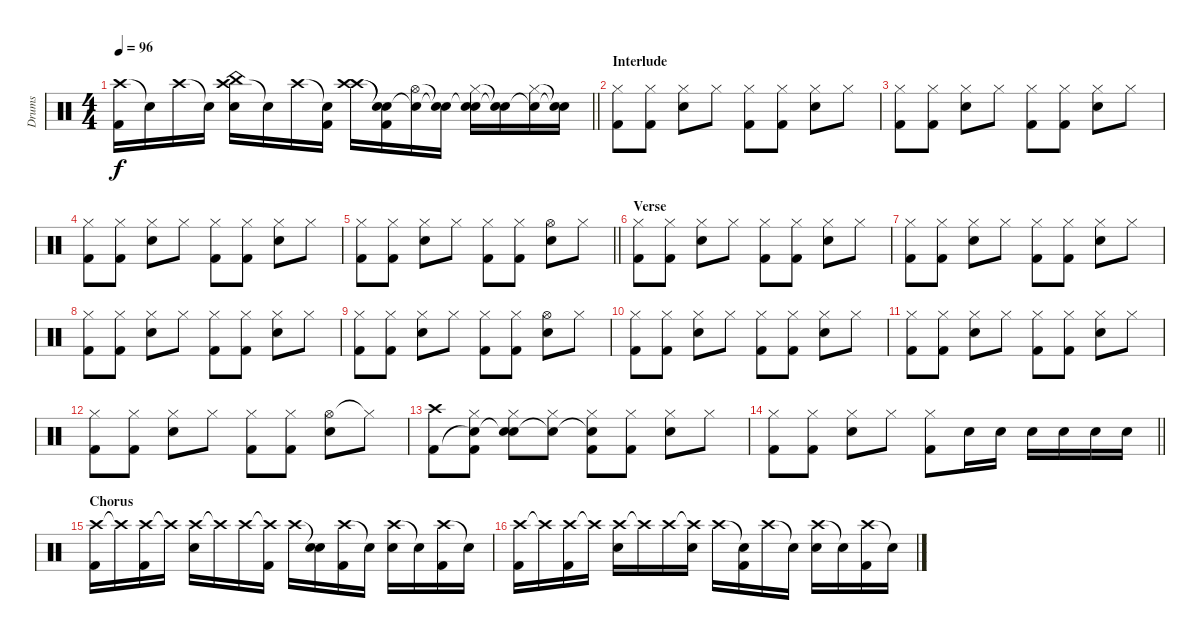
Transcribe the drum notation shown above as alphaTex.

\track ("Drums" "Drums") {instrument percussion}
\staff {score}
\articulation defaults
\ts (4 4)
\tempo 96
\clef neutral
\barLineRight lightlight
\ks aminor
("Crash high (hit)" "Kick (hit) 2").16{dy f} "Snare (hit)"{t}.16 "Crash high (hit)".16 "Snare (hit)"{t}.16 ("Crash high (hit)" "China (hit)" "Snare (hit) 2").16 "Snare (hit)"{t}.16 "Crash high (hit)".16 ("Snare (hit)"{t} "Kick (hit) 2").16 ("Crash high (hit)" "Crash high (hit)").16 ("Snare (hit)"{t} "Snare (hit)"{t} "Kick (hit) 2").16 ("Hi-Hat (open)" "Snare (hit)"{t}).16 ("Snare (hit)"{t} "Snare (hit)"{t}).16 ("Hi-Hat (closed)" "Snare (hit)"{t} "Snare (hit) 2").16 ("Snare (hit)"{t} "Snare (hit)"{t}).16 ("Hi-Hat (closed)" "Snare (hit)"{t}).16 ("Snare (hit)"{t} "Snare (hit)"{t}).16 |
\section ("" "Interlude")
("Hi-Hat (closed)" "Kick (hit) 2").8 ("Hi-Hat (closed)" "Kick (hit) 2").8 ("Hi-Hat (closed)" "Snare (hit) 2").8 "Hi-Hat (closed)".8 ("Hi-Hat (closed)" "Kick (hit) 2").8 ("Hi-Hat (closed)" "Kick (hit) 2").8 ("Hi-Hat (closed)" "Snare (hit) 2").8 "Hi-Hat (closed)".8 |
("Hi-Hat (closed)" "Kick (hit) 2").8 ("Hi-Hat (closed)" "Kick (hit) 2").8 ("Hi-Hat (closed)" "Snare (hit) 2").8 "Hi-Hat (closed)".8 ("Hi-Hat (closed)" "Kick (hit) 2").8 ("Hi-Hat (closed)" "Kick (hit) 2").8 ("Hi-Hat (closed)" "Snare (hit) 2").8 "Hi-Hat (closed)".8 |
("Hi-Hat (closed)" "Kick (hit) 2").8 ("Hi-Hat (closed)" "Kick (hit) 2").8 ("Hi-Hat (closed)" "Snare (hit) 2").8 "Hi-Hat (closed)".8 ("Hi-Hat (closed)" "Kick (hit) 2").8 ("Hi-Hat (closed)" "Kick (hit) 2").8 ("Hi-Hat (closed)" "Snare (hit) 2").8 "Hi-Hat (closed)".8 |
\barLineRight lightlight
("Hi-Hat (closed)" "Kick (hit) 2").8 ("Hi-Hat (closed)" "Kick (hit) 2").8 ("Hi-Hat (closed)" "Snare (hit) 2").8 "Hi-Hat (closed)".8 ("Hi-Hat (closed)" "Kick (hit) 2").8 ("Hi-Hat (closed)" "Kick (hit) 2").8 ("Hi-Hat (open)" "Snare (hit) 2").8 "Hi-Hat (closed)".8 |
\section ("" "Verse")
("Hi-Hat (closed)" "Kick (hit) 2").8 ("Hi-Hat (closed)" "Kick (hit) 2").8 ("Hi-Hat (closed)" "Snare (hit) 2").8 "Hi-Hat (closed)".8 ("Hi-Hat (closed)" "Kick (hit) 2").8 ("Hi-Hat (closed)" "Kick (hit) 2").8 ("Hi-Hat (closed)" "Snare (hit) 2").8 "Hi-Hat (closed)".8 |
("Hi-Hat (closed)" "Kick (hit) 2").8 ("Hi-Hat (closed)" "Kick (hit) 2").8 ("Hi-Hat (closed)" "Snare (hit) 2").8 "Hi-Hat (closed)".8 ("Hi-Hat (closed)" "Kick (hit) 2").8 ("Hi-Hat (closed)" "Kick (hit) 2").8 ("Hi-Hat (closed)" "Snare (hit) 2").8 "Hi-Hat (closed)".8 |
("Hi-Hat (closed)" "Kick (hit) 2").8 ("Hi-Hat (closed)" "Kick (hit) 2").8 ("Hi-Hat (closed)" "Snare (hit) 2").8 "Hi-Hat (closed)".8 ("Hi-Hat (closed)" "Kick (hit) 2").8 ("Hi-Hat (closed)" "Kick (hit) 2").8 ("Hi-Hat (closed)" "Snare (hit) 2").8 "Hi-Hat (closed)".8 |
("Hi-Hat (closed)" "Kick (hit) 2").8 ("Hi-Hat (closed)" "Kick (hit) 2").8 ("Hi-Hat (closed)" "Snare (hit) 2").8 "Hi-Hat (closed)".8 ("Hi-Hat (closed)" "Kick (hit) 2").8 ("Hi-Hat (closed)" "Kick (hit) 2").8 ("Hi-Hat (open)" "Snare (hit) 2").8 "Hi-Hat (closed)".8 |
("Hi-Hat (closed)" "Kick (hit) 2").8 ("Hi-Hat (closed)" "Kick (hit) 2").8 ("Hi-Hat (closed)" "Snare (hit) 2").8 "Hi-Hat (closed)".8 ("Hi-Hat (closed)" "Kick (hit) 2").8 ("Hi-Hat (closed)" "Kick (hit) 2").8 ("Hi-Hat (closed)" "Snare (hit) 2").8 "Hi-Hat (closed)".8 |
("Hi-Hat (closed)" "Kick (hit) 2").8 ("Hi-Hat (closed)" "Kick (hit) 2").8 ("Hi-Hat (closed)" "Snare (hit) 2").8 "Hi-Hat (closed)".8 ("Hi-Hat (closed)" "Kick (hit) 2").8 ("Hi-Hat (closed)" "Kick (hit) 2").8 ("Hi-Hat (closed)" "Snare (hit) 2").8 "Hi-Hat (closed)".8 |
("Hi-Hat (closed)" "Kick (hit) 2").8 ("Hi-Hat (closed)" "Kick (hit) 2").8 ("Hi-Hat (closed)" "Snare (hit) 2").8 "Hi-Hat (closed)".8 ("Hi-Hat (closed)" "Kick (hit) 2").8 ("Hi-Hat (closed)" "Kick (hit) 2").8 ("Hi-Hat (open)" "Snare (hit) 2").8 "Hi-Hat (closed)"{t}.8 |
("Crash high (hit)" "Kick (hit) 2").8 ("Hi-Hat (closed)" "Snare (hit)"{t} "Kick (hit) 2").8 ("Hi-Hat (closed)" "Snare (hit)"{t} "Snare (hit) 2").8 ("Hi-Hat (closed)" "Snare (hit)"{t}).8 ("Hi-Hat (closed)" "Snare (hit)"{t} "Kick (hit) 2").8 ("Hi-Hat (closed)" "Kick (hit) 2").8 ("Hi-Hat (closed)" "Snare (hit) 2").8 "Hi-Hat (closed)".8 |
\barLineRight lightlight
("Hi-Hat (closed)" "Kick (hit) 2").8 ("Hi-Hat (closed)" "Kick (hit) 2").8 ("Hi-Hat (closed)" "Snare (hit) 2").8 "Hi-Hat (closed)".8 ("Hi-Hat (closed)" "Kick (hit) 2").8 "Snare (hit) 2".16 "Snare (hit) 2".16 "Snare (hit) 2".16 "Snare (hit) 2".16 "Snare (hit) 2".16 "Snare (hit) 2".16 |
\section ("" "Chorus")
("Crash high (hit)" "Kick (hit) 2").16 "Crash high (hit)"{t}.16 ("Crash high (hit)" "Kick (hit) 2").16 "Crash high (hit)"{t}.16 ("Crash high (hit)" "Snare (hit) 2").16 "Crash high (hit)"{t}.16 "Crash high (hit)".16 ("Crash high (hit)"{t} "Kick (hit) 2").16 "Crash high (hit)".16 ("Snare (hit)"{t} "Snare (hit) 2").16 ("Crash high (hit)" "Kick (hit) 2").16 "Snare (hit)"{t}.16 ("Crash high (hit)" "Snare (hit) 2").16 "Snare (hit)"{t}.16 ("Crash high (hit)" "Kick (hit) 2").16 "Snare (hit)"{t}.16 |
("Crash high (hit)" "Kick (hit) 2").16 "Crash high (hit)"{t}.16 ("Crash high (hit)" "Kick (hit) 2").16 "Crash high (hit)"{t}.16 ("Crash high (hit)" "Snare (hit) 2").16 "Crash high (hit)"{t}.16 "Crash high (hit)".16 ("Crash high (hit)"{t} "Snare (hit) 2").16 "Crash high (hit)".16 ("Snare (hit)"{t} "Kick (hit) 2").16 "Crash high (hit)".16 "Snare (hit)"{t}.16 ("Crash high (hit)" "Snare (hit) 2").16 "Snare (hit)"{t}.16 ("Crash high (hit)" "Kick (hit) 2").16 "Snare (hit)"{t}.16
